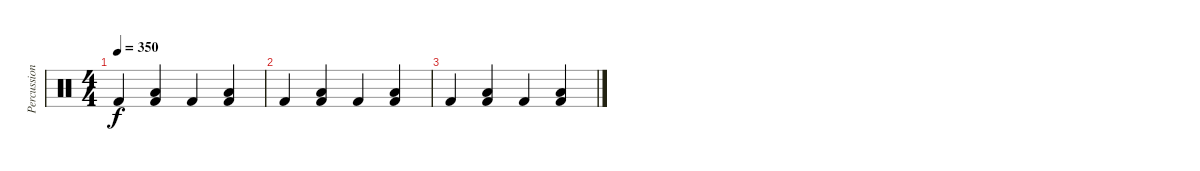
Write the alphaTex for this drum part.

\track ("Percussion" "Percussion") {instrument percussion}
\staff {score}
\articulation defaults
\ts (4 4)
\tempo 350
\clef neutral
\ks c "Kick (hit) 2".4{dy f}
("Low Tom (hit)" "Kick (hit) 2").4 "Kick (hit) 2".4 ("Low Tom (hit)" "Kick (hit) 2").4 |
"Kick (hit) 2".4 ("Low Tom (hit)" "Kick (hit) 2").4 "Kick (hit) 2".4 ("Low Tom (hit)" "Kick (hit) 2").4 |
"Kick (hit) 2".4 ("Low Tom (hit)" "Kick (hit) 2").4 "Kick (hit) 2".4 ("Low Tom (hit)" "Kick (hit) 2").4
